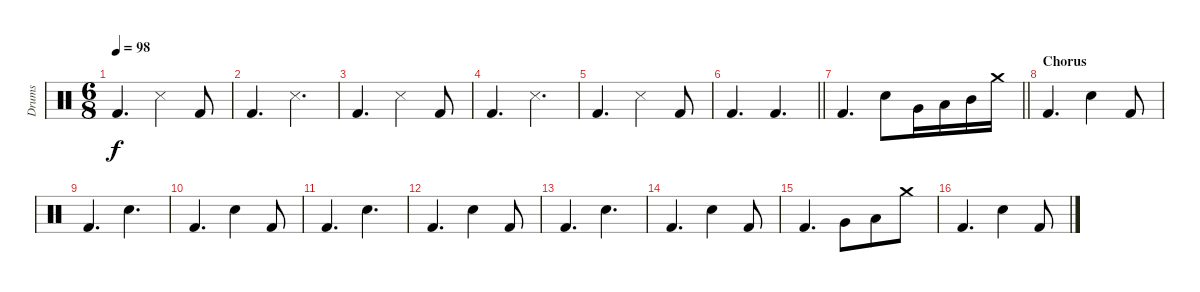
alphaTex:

\track ("Drums" "Drums") {instrument percussion}
\staff {score}
\articulation defaults
\ts (6 8)
\tempo 98
\clef neutral
\ks c "Kick (hit) 2".4{d dy f} "Snare (side stick) 3".4 "Kick (hit) 2".8
|
"Kick (hit) 2".4{d} "Snare (side stick) 3".4{d} |
"Kick (hit) 2".4{d} "Snare (side stick) 3".4 "Kick (hit) 2".8 |
"Kick (hit) 2".4{d} "Snare (side stick) 3".4{d} |
"Kick (hit) 2".4{d} "Snare (side stick) 3".4 "Kick (hit) 2".8 |
\barLineRight lightlight "Kick (hit) 2".4{d} "Kick (hit) 2".4{d}
|
\barLineRight lightlight "Kick (hit) 2".4{d} "Snare (hit) 2".8 "Very Low Tom (hit)".16 "Low Tom (hit)".16 "Mid Tom (hit)".16 "Crash medium (hit)".16
|
\section ("" "Chorus")
"Kick (hit) 2".4{d} "Snare (hit) 2".4 "Kick (hit) 2".8 |
"Kick (hit) 2".4{d} "Snare (hit) 2".4{d} |
"Kick (hit) 2".4{d} "Snare (hit) 2".4 "Kick (hit) 2".8 |
"Kick (hit) 2".4{d} "Snare (hit) 2".4{d} |
"Kick (hit) 2".4{d} "Snare (hit) 2".4 "Kick (hit) 2".8 |
"Kick (hit) 2".4{d} "Snare (hit) 2".4{d} |
"Kick (hit) 2".4{d} "Snare (hit) 2".4 "Kick (hit) 2".8 |
"Kick (hit) 2".4{d} "Very Low Tom (hit)".8 "Low Tom (hit)".8 "Crash medium (hit)".8 |
"Kick (hit) 2".4{d} "Snare (hit) 2".4 "Kick (hit) 2".8
